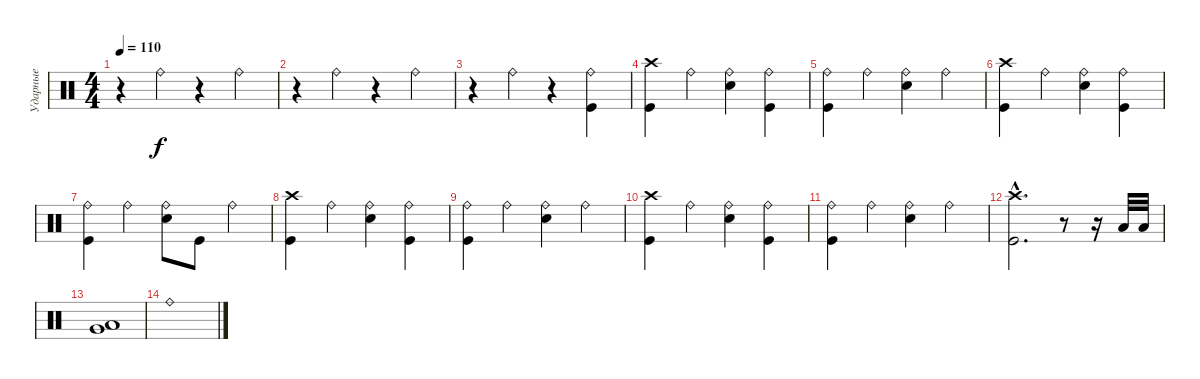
\track ("Ударные" "Ударные") {instrument percussion}
\staff {score}
\articulation defaults
\ts (4 4)
\tempo 110
\clef neutral
\ks c
r.4{dy f} "Ride (bell)".4 r.4 "Ride (bell)".4 |
r.4 "Ride (bell)".4 r.4 "Ride (bell)".4 |
r.4 "Ride (bell)".4 r.4 ("Ride (bell)" "Kick (hit)").4 |
("Crash high (hit)" "Kick (hit)").4 "Ride (bell)".4 ("Ride (bell)" "Electric Snare (hit)").4 ("Ride (bell)" "Kick (hit)").4 |
("Ride (bell)" "Kick (hit)").4 "Ride (bell)".4 ("Ride (bell)" "Electric Snare (hit)").4 "Ride (bell)".4 |
("Crash high (hit)" "Kick (hit)").4 "Ride (bell)".4 ("Ride (bell)" "Electric Snare (hit)").4 ("Ride (bell)" "Kick (hit)").4 |
("Ride (bell)" "Kick (hit)").4 "Ride (bell)".4 ("Ride (bell)" "Electric Snare (hit)").8 "Kick (hit)".8 "Ride (bell)".4 |
("Crash high (hit)" "Kick (hit)").4 "Ride (bell)".4 ("Ride (bell)" "Electric Snare (hit)").4 ("Ride (bell)" "Kick (hit)").4 |
("Ride (bell)" "Kick (hit)").4 "Ride (bell)".4 ("Ride (bell)" "Electric Snare (hit)").4 "Ride (bell)".4 |
("Crash high (hit)" "Kick (hit)").4 "Ride (bell)".4 ("Ride (bell)" "Electric Snare (hit)").4 ("Ride (bell)" "Kick (hit)").4 |
("Ride (bell)" "Kick (hit)").4 "Ride (bell)".4 ("Ride (bell)" "Electric Snare (hit)").4 "Ride (bell)".4 |
("Crash high (hit)"{hac} "Kick (hit)"{hac}).2{d} r.8 r.16 "Low Tom (hit)".32 "Low Tom (hit)".32 |
("Low Tom (hit)" "Very Low Tom (hit)").1 |
"Ride (bell)".1
